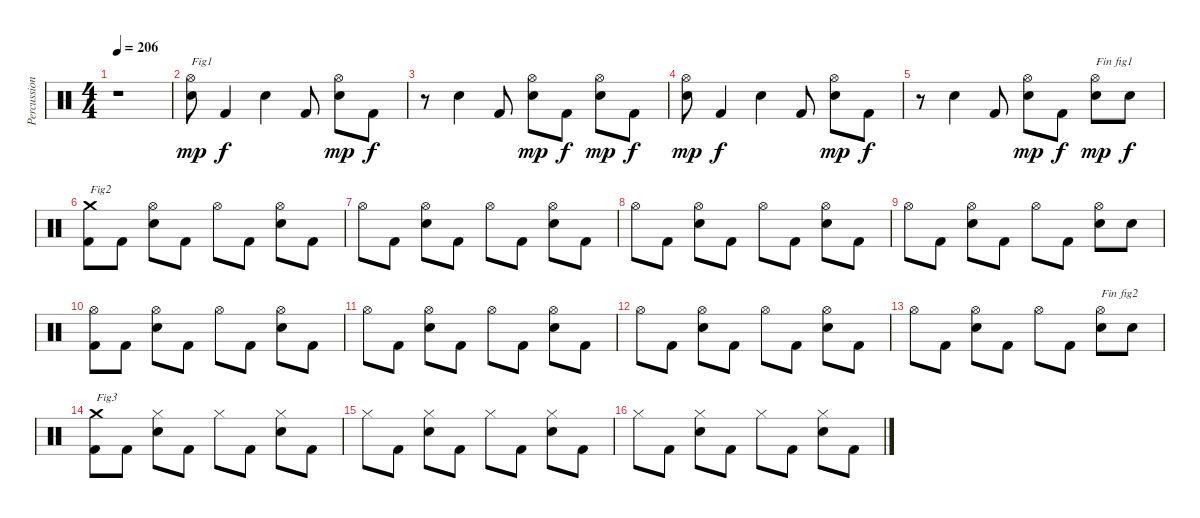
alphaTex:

\track ("Percussions" "Percussion") {instrument percussion}
\staff {score}
\articulation defaults
\ts (4 4)
\tempo 206
\clef neutral
\ks c
r.1{dy mp} |
("Electric Snare (hit)" "Hi-Hat (open)").8{txt "Fig1"} "Kick (hit) 2".4{dy f} "Electric Snare (hit)".4 "Kick (hit) 2".8 ("Electric Snare (hit)" "Hi-Hat (open)").8{dy mp} "Kick (hit) 2".8{dy f} |
r.8 "Electric Snare (hit)".4 "Kick (hit) 2".8 ("Electric Snare (hit)" "Hi-Hat (open)").8{dy mp} "Kick (hit) 2".8{dy f} ("Electric Snare (hit)" "Hi-Hat (open)").8{dy mp} "Kick (hit) 2".8{dy f} |
("Electric Snare (hit)" "Hi-Hat (open)").8{dy mp} "Kick (hit) 2".4{dy f} "Electric Snare (hit)".4 "Kick (hit) 2".8 ("Electric Snare (hit)" "Hi-Hat (open)").8{dy mp} "Kick (hit) 2".8{dy f} |
r.8 "Electric Snare (hit)".4 "Kick (hit) 2".8 ("Electric Snare (hit)" "Hi-Hat (open)").8{dy mp} "Kick (hit) 2".8{dy f} ("Electric Snare (hit)" "Hi-Hat (open)").8{txt "Fin fig1" dy mp} "Electric Snare (hit)".8{dy f} |
("Kick (hit) 2" "Crash medium (hit)").8{txt "Fig2"} "Kick (hit) 2".8 ("Electric Snare (hit)" "Hi-Hat (open)").8 "Kick (hit) 2".8 "Hi-Hat (open)".8 "Kick (hit) 2".8 ("Electric Snare (hit)" "Hi-Hat (open)").8 "Kick (hit) 2".8 |
"Hi-Hat (open)".8 "Kick (hit) 2".8 ("Electric Snare (hit)" "Hi-Hat (open)").8 "Kick (hit) 2".8 "Hi-Hat (open)".8 "Kick (hit) 2".8 ("Electric Snare (hit)" "Hi-Hat (open)").8 "Kick (hit) 2".8 |
"Hi-Hat (open)".8 "Kick (hit) 2".8 ("Electric Snare (hit)" "Hi-Hat (open)").8 "Kick (hit) 2".8 "Hi-Hat (open)".8 "Kick (hit) 2".8 ("Electric Snare (hit)" "Hi-Hat (open)").8 "Kick (hit) 2".8 |
"Hi-Hat (open)".8 "Kick (hit) 2".8 ("Electric Snare (hit)" "Hi-Hat (open)").8 "Kick (hit) 2".8 "Hi-Hat (open)".8 "Kick (hit) 2".8 ("Electric Snare (hit)" "Hi-Hat (open)").8 "Electric Snare (hit)".8 |
("Kick (hit) 2" "Hi-Hat (open)").8 "Kick (hit) 2".8 ("Electric Snare (hit)" "Hi-Hat (open)").8 "Kick (hit) 2".8 "Hi-Hat (open)".8 "Kick (hit) 2".8 ("Electric Snare (hit)" "Hi-Hat (open)").8 "Kick (hit) 2".8 |
"Hi-Hat (open)".8 "Kick (hit) 2".8 ("Electric Snare (hit)" "Hi-Hat (open)").8 "Kick (hit) 2".8 "Hi-Hat (open)".8 "Kick (hit) 2".8 ("Electric Snare (hit)" "Hi-Hat (open)").8 "Kick (hit) 2".8 |
"Hi-Hat (open)".8 "Kick (hit) 2".8 ("Electric Snare (hit)" "Hi-Hat (open)").8 "Kick (hit) 2".8 "Hi-Hat (open)".8 "Kick (hit) 2".8 ("Electric Snare (hit)" "Hi-Hat (open)").8 "Kick (hit) 2".8 |
"Hi-Hat (open)".8 "Kick (hit) 2".8 ("Electric Snare (hit)" "Hi-Hat (open)").8 "Kick (hit) 2".8 "Hi-Hat (open)".8 "Kick (hit) 2".8 ("Electric Snare (hit)" "Hi-Hat (open)").8{txt "Fin fig2"} "Electric Snare (hit)".8 |
("Kick (hit) 2" "Crash medium (hit)").8{txt "Fig3"} "Kick (hit) 2".8 ("Electric Snare (hit)" "Hi-Hat (closed)").8 "Kick (hit) 2".8 "Hi-Hat (closed)".8 "Kick (hit) 2".8 ("Electric Snare (hit)" "Hi-Hat (closed)").8 "Kick (hit) 2".8 |
"Hi-Hat (closed)".8 "Kick (hit) 2".8 ("Electric Snare (hit)" "Hi-Hat (closed)").8 "Kick (hit) 2".8 "Hi-Hat (closed)".8 "Kick (hit) 2".8 ("Electric Snare (hit)" "Hi-Hat (closed)").8 "Kick (hit) 2".8 |
"Hi-Hat (closed)".8 "Kick (hit) 2".8 ("Electric Snare (hit)" "Hi-Hat (closed)").8 "Kick (hit) 2".8 "Hi-Hat (closed)".8 "Kick (hit) 2".8 ("Electric Snare (hit)" "Hi-Hat (closed)").8 "Kick (hit) 2".8
